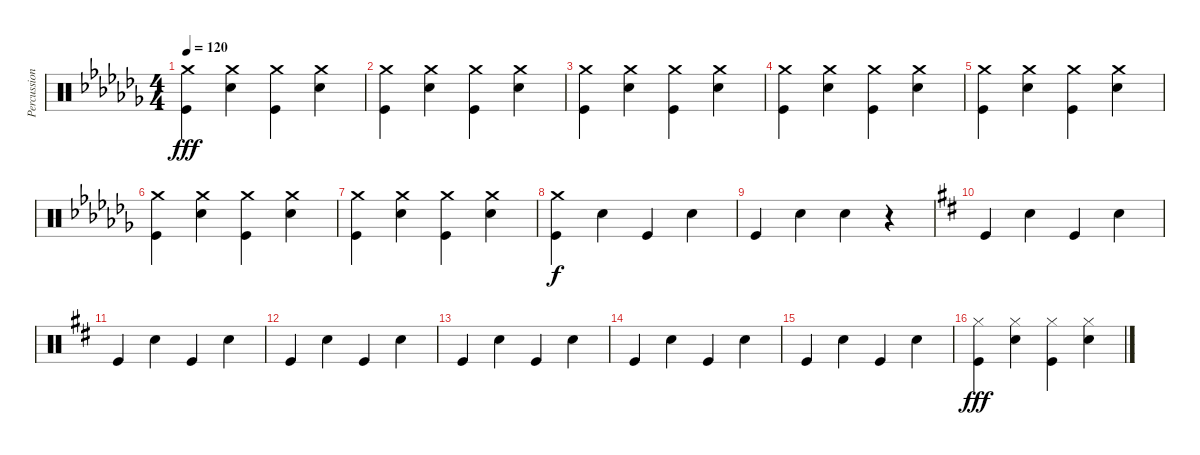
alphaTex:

\track ("Percussion" "Percussion") {instrument percussion}
\staff {score}
\articulation defaults
\ts (4 4)
\tempo 120
\clef neutral
\ks abminor
("Crash medium (hit)" "Kick (hit)").4{dy fff} ("Crash medium (hit)" "Snare (hit) 2").4 ("Crash medium (hit)" "Kick (hit)").4 ("Crash medium (hit)" "Snare (hit) 2").4 |
("Crash medium (hit)" "Kick (hit)").4 ("Crash medium (hit)" "Snare (hit) 2").4 ("Crash medium (hit)" "Kick (hit)").4 ("Crash medium (hit)" "Snare (hit) 2").4 |
("Crash medium (hit)" "Kick (hit)").4 ("Crash medium (hit)" "Snare (hit) 2").4 ("Crash medium (hit)" "Kick (hit)").4 ("Crash medium (hit)" "Snare (hit) 2").4 |
("Crash medium (hit)" "Kick (hit)").4 ("Crash medium (hit)" "Snare (hit) 2").4 ("Crash medium (hit)" "Kick (hit)").4 ("Crash medium (hit)" "Snare (hit) 2").4 |
("Crash medium (hit)" "Kick (hit)").4 ("Crash medium (hit)" "Snare (hit) 2").4 ("Crash medium (hit)" "Kick (hit)").4 ("Crash medium (hit)" "Snare (hit) 2").4 |
("Crash medium (hit)" "Kick (hit)").4 ("Crash medium (hit)" "Snare (hit) 2").4 ("Crash medium (hit)" "Kick (hit)").4 ("Crash medium (hit)" "Snare (hit) 2").4 |
("Crash medium (hit)" "Kick (hit)").4 ("Crash medium (hit)" "Snare (hit) 2").4 ("Crash medium (hit)" "Kick (hit)").4 ("Crash medium (hit)" "Snare (hit) 2").4 |
("Crash medium (hit)" "Kick (hit)").4{dy f} "Snare (hit) 2".4 "Kick (hit)".4 "Snare (hit) 2".4 |
"Kick (hit)".4 "Snare (hit) 2".4 "Snare (hit) 2".4 r.4 |
\ks d "Kick (hit)".4 "Snare (hit) 2".4 "Kick (hit)".4 "Snare (hit) 2".4
|
"Kick (hit)".4 "Snare (hit) 2".4 "Kick (hit)".4 "Snare (hit) 2".4 |
"Kick (hit)".4 "Snare (hit) 2".4 "Kick (hit)".4 "Snare (hit) 2".4 |
"Kick (hit)".4 "Snare (hit) 2".4 "Kick (hit)".4 "Snare (hit) 2".4 |
"Kick (hit)".4 "Snare (hit) 2".4 "Kick (hit)".4 "Snare (hit) 2".4 |
"Kick (hit)".4 "Snare (hit) 2".4 "Kick (hit)".4 "Snare (hit) 2".4 |
("Hi-Hat (closed)" "Kick (hit)").4{dy fff} ("Hi-Hat (closed)" "Snare (hit) 2").4 ("Hi-Hat (closed)" "Kick (hit)").4 ("Hi-Hat (closed)" "Snare (hit) 2").4
